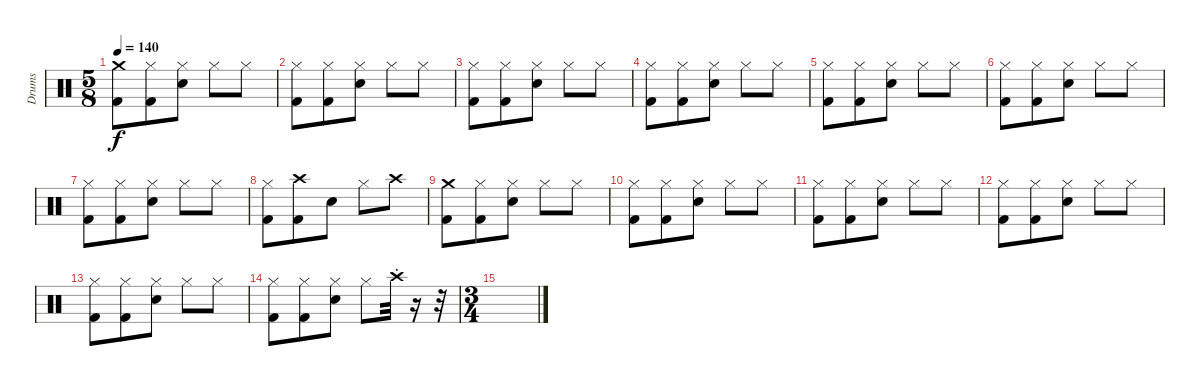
\track ("Drums" "Drums") {instrument percussion}
\staff {score}
\articulation defaults
\ts (5 8)
\tempo 140
\clef neutral
\ks c
("Crash medium (hit)" "Kick (hit) 2").8{dy f} ("Hi-Hat (closed)" "Kick (hit) 2").8 ("Hi-Hat (closed)" "Electric Snare (hit)").8 "Hi-Hat (closed)".8 "Hi-Hat (closed)".8 |
("Hi-Hat (closed)" "Kick (hit) 2").8 ("Hi-Hat (closed)" "Kick (hit) 2").8 ("Hi-Hat (closed)" "Electric Snare (hit)").8 "Hi-Hat (closed)".8 "Hi-Hat (closed)".8 |
("Hi-Hat (closed)" "Kick (hit) 2").8 ("Hi-Hat (closed)" "Kick (hit) 2").8 ("Hi-Hat (closed)" "Electric Snare (hit)").8 "Hi-Hat (closed)".8 "Hi-Hat (closed)".8 |
("Hi-Hat (closed)" "Kick (hit) 2").8 ("Hi-Hat (closed)" "Kick (hit) 2").8 ("Hi-Hat (closed)" "Electric Snare (hit)").8 "Hi-Hat (closed)".8 "Hi-Hat (closed)".8 |
("Hi-Hat (closed)" "Kick (hit) 2").8 ("Hi-Hat (closed)" "Kick (hit) 2").8 ("Hi-Hat (closed)" "Electric Snare (hit)").8 "Hi-Hat (closed)".8 "Hi-Hat (closed)".8 |
("Hi-Hat (closed)" "Kick (hit) 2").8 ("Hi-Hat (closed)" "Kick (hit) 2").8 ("Hi-Hat (closed)" "Electric Snare (hit)").8 "Hi-Hat (closed)".8 "Hi-Hat (closed)".8 |
("Hi-Hat (closed)" "Kick (hit) 2").8 ("Hi-Hat (closed)" "Kick (hit) 2").8 ("Hi-Hat (closed)" "Electric Snare (hit)").8 "Hi-Hat (closed)".8 "Hi-Hat (closed)".8 |
("Hi-Hat (closed)" "Kick (hit) 2").8 ("Crash high (hit)" "Kick (hit) 2").8 "Electric Snare (hit)".8 "Hi-Hat (closed)".8 "Crash high (hit)".8 |
("Crash medium (hit)" "Kick (hit) 2").8 ("Hi-Hat (closed)" "Kick (hit) 2").8 ("Hi-Hat (closed)" "Electric Snare (hit)").8 "Hi-Hat (closed)".8 "Hi-Hat (closed)".8 |
("Hi-Hat (closed)" "Kick (hit) 2").8 ("Hi-Hat (closed)" "Kick (hit) 2").8 ("Hi-Hat (closed)" "Electric Snare (hit)").8 "Hi-Hat (closed)".8 "Hi-Hat (closed)".8 |
("Hi-Hat (closed)" "Kick (hit) 2").8 ("Hi-Hat (closed)" "Kick (hit) 2").8 ("Hi-Hat (closed)" "Electric Snare (hit)").8 "Hi-Hat (closed)".8 "Hi-Hat (closed)".8 |
("Hi-Hat (closed)" "Kick (hit) 2").8 ("Hi-Hat (closed)" "Kick (hit) 2").8 ("Hi-Hat (closed)" "Electric Snare (hit)").8 "Hi-Hat (closed)".8 "Hi-Hat (closed)".8 |
("Hi-Hat (closed)" "Kick (hit) 2").8 ("Hi-Hat (closed)" "Kick (hit) 2").8 ("Hi-Hat (closed)" "Electric Snare (hit)").8 "Hi-Hat (closed)".8 "Hi-Hat (closed)".8 |
("Hi-Hat (closed)" "Kick (hit) 2").8 ("Hi-Hat (closed)" "Kick (hit) 2").8 ("Hi-Hat (closed)" "Electric Snare (hit)").8 "Hi-Hat (closed)".8 "Crash high (hit)"{st}.32 r.16 r.32 |
\ts (3 4)
